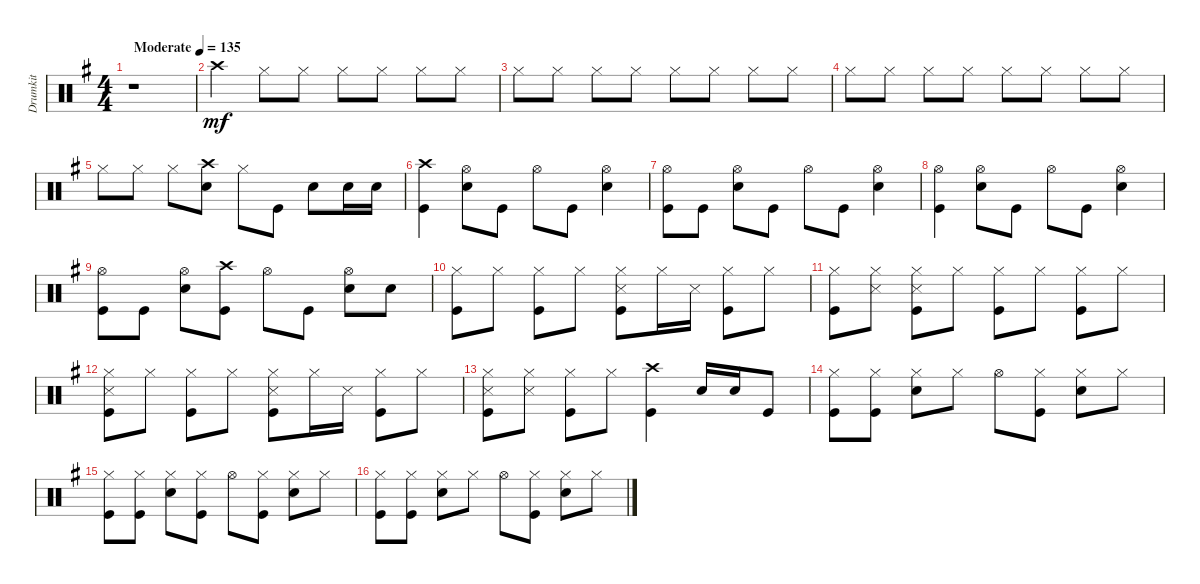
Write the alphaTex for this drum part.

\track ("Drumkit" "Drumkit") {instrument percussion}
\staff {score}
\articulation defaults
\ts (4 4)
\tempo (135 "Moderate")
\clef neutral
\ks g
r.1{dy mf} |
"Crash high (hit)".4 "Hi-Hat (closed)".8 "Hi-Hat (closed)".8 "Hi-Hat (closed)".8 "Hi-Hat (closed)".8 "Hi-Hat (closed)".8 "Hi-Hat (closed)".8 |
"Hi-Hat (closed)".8 "Hi-Hat (closed)".8 "Hi-Hat (closed)".8 "Hi-Hat (closed)".8 "Hi-Hat (closed)".8 "Hi-Hat (closed)".8 "Hi-Hat (closed)".8 "Hi-Hat (closed)".8 |
"Hi-Hat (closed)".8 "Hi-Hat (closed)".8 "Hi-Hat (closed)".8 "Hi-Hat (closed)".8 "Hi-Hat (closed)".8 "Hi-Hat (closed)".8 "Hi-Hat (closed)".8 "Hi-Hat (closed)".8 |
"Hi-Hat (closed)".8 "Hi-Hat (closed)".8 "Hi-Hat (closed)".8 ("Snare (hit) 2" "Crash high (hit)").8 "Hi-Hat (closed)".8 "Kick (hit)".8 "Snare (hit) 2".8 "Snare (hit) 2".16 "Snare (hit) 2".16 |
("Kick (hit)" "Crash high (hit)").4 ("Hi-Hat (open)" "Snare (hit) 2").8 "Kick (hit)".8 "Hi-Hat (open)".8 "Kick (hit)".8 ("Hi-Hat (open)" "Snare (hit) 2").4 |
("Hi-Hat (open)" "Kick (hit)").8 "Kick (hit)".8 ("Hi-Hat (open)" "Snare (hit) 2").8 "Kick (hit)".8 "Hi-Hat (open)".8 "Kick (hit)".8 ("Hi-Hat (open)" "Snare (hit) 2").4 |
("Kick (hit)" "Hi-Hat (open)").4 ("Hi-Hat (open)" "Snare (hit) 2").8 "Kick (hit)".8 "Hi-Hat (open)".8 "Kick (hit)".8 ("Hi-Hat (open)" "Snare (hit) 2").4 |
("Hi-Hat (open)" "Kick (hit)").8 "Kick (hit)".8 ("Hi-Hat (open)" "Snare (hit) 2").8 ("Kick (hit)" "Crash high (hit)").8 "Hi-Hat (open)".8 "Kick (hit)".8 ("Hi-Hat (open)" "Snare (hit) 2").8 "Snare (hit) 2".8 |
("Hi-Hat (closed)" "Kick (hit)").8 "Hi-Hat (closed)".8 ("Hi-Hat (closed)" "Kick (hit)").8 "Hi-Hat (closed)".8 ("Hi-Hat (closed)" "Kick (hit)" "Snare (side stick) 3").8 "Hi-Hat (closed)".16 "Snare (side stick) 3".16 ("Hi-Hat (closed)" "Kick (hit)").8 "Hi-Hat (closed)".8 |
("Hi-Hat (closed)" "Kick (hit)").8 ("Hi-Hat (closed)" "Snare (side stick) 3").8 ("Hi-Hat (closed)" "Kick (hit)" "Snare (side stick) 3").8 "Hi-Hat (closed)".8 ("Hi-Hat (closed)" "Kick (hit)").8 "Hi-Hat (closed)".8 ("Hi-Hat (closed)" "Kick (hit)").8 "Hi-Hat (closed)".8 |
("Hi-Hat (closed)" "Kick (hit)" "Snare (side stick) 3").8 "Hi-Hat (closed)".8 ("Hi-Hat (closed)" "Kick (hit)").8 "Hi-Hat (closed)".8 ("Hi-Hat (closed)" "Kick (hit)" "Snare (side stick) 3").8 "Hi-Hat (closed)".16 "Snare (side stick) 3".16 ("Hi-Hat (closed)" "Kick (hit)").8 "Hi-Hat (closed)".8 |
("Hi-Hat (closed)" "Kick (hit)" "Snare (side stick) 3").8 ("Hi-Hat (closed)" "Snare (side stick) 3").8 ("Hi-Hat (closed)" "Kick (hit)").8 "Hi-Hat (closed)".8 ("Kick (hit)" "Crash high (hit)").4 "Snare (hit) 2".16 "Snare (hit) 2".16 "Kick (hit)".8 |
("Hi-Hat (closed)" "Kick (hit)").8 ("Hi-Hat (closed)" "Kick (hit)").8 ("Hi-Hat (closed)" "Snare (hit) 2").8 "Hi-Hat (closed)".8 "Hi-Hat (open)".8 ("Hi-Hat (closed)" "Kick (hit)").8 ("Hi-Hat (closed)" "Snare (hit) 2").8 "Hi-Hat (closed)".8 |
("Hi-Hat (closed)" "Kick (hit)").8 ("Hi-Hat (closed)" "Kick (hit)").8 ("Hi-Hat (closed)" "Snare (hit) 2").8 ("Hi-Hat (closed)" "Kick (hit)").8 "Hi-Hat (open)".8 ("Hi-Hat (closed)" "Kick (hit)").8 ("Hi-Hat (closed)" "Snare (hit) 2").8 "Hi-Hat (closed)".8 |
("Hi-Hat (closed)" "Kick (hit)").8 ("Hi-Hat (closed)" "Kick (hit)").8 ("Hi-Hat (closed)" "Snare (hit) 2").8 "Hi-Hat (closed)".8 "Hi-Hat (open)".8 ("Hi-Hat (closed)" "Kick (hit)").8 ("Hi-Hat (closed)" "Snare (hit) 2").8 "Hi-Hat (closed)".8
